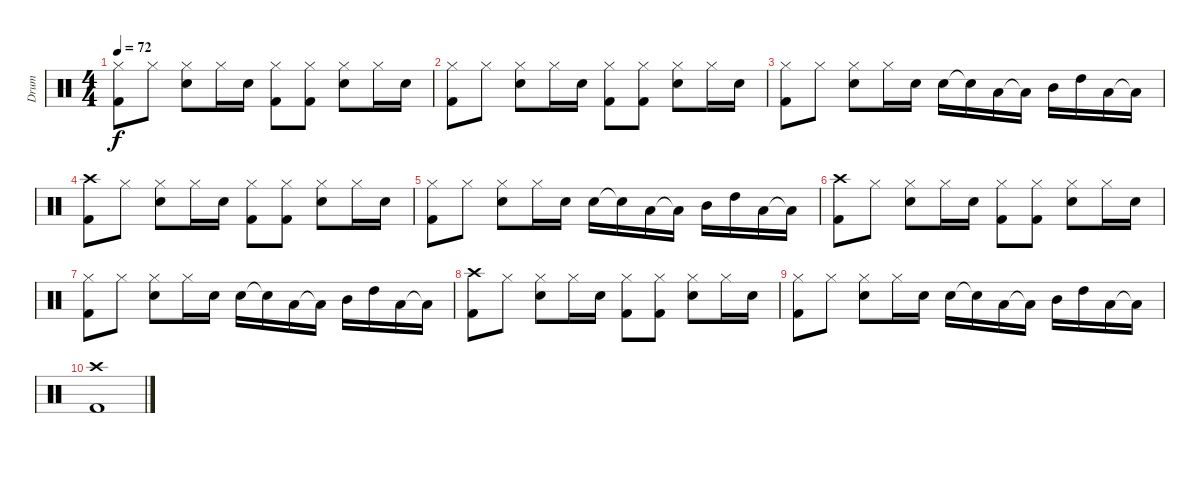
\track ("Drum" "Drum") {instrument percussion}
\staff {score}
\articulation defaults
\ts (4 4)
\tempo 72
\clef neutral
\ks c
("Hi-Hat (closed)" "Kick (hit) 2").8{dy f} "Hi-Hat (closed)".8 ("Hi-Hat (closed)" "Electric Snare (hit)").8 "Hi-Hat (closed)".16 "Electric Snare (hit)".16 ("Hi-Hat (closed)" "Kick (hit) 2").8 ("Hi-Hat (closed)" "Kick (hit) 2").8 ("Electric Snare (hit)" "Hi-Hat (closed)").8 "Hi-Hat (closed)".16 "Electric Snare (hit)".16 |
("Hi-Hat (closed)" "Kick (hit) 2").8 "Hi-Hat (closed)".8 ("Hi-Hat (closed)" "Electric Snare (hit)").8 "Hi-Hat (closed)".16 "Electric Snare (hit)".16 ("Hi-Hat (closed)" "Kick (hit) 2").8 ("Hi-Hat (closed)" "Kick (hit) 2").8 ("Electric Snare (hit)" "Hi-Hat (closed)").8 "Hi-Hat (closed)".16 "Electric Snare (hit)".16 |
("Hi-Hat (closed)" "Kick (hit) 2").8 "Hi-Hat (closed)".8 ("Hi-Hat (closed)" "Electric Snare (hit)").8 "Hi-Hat (closed)".16 "Electric Snare (hit)".16 "Electric Snare (hit)".16 "Electric Snare (hit)"{t}.16 "Low Tom (hit)".16 "Low Tom (hit)"{t}.16 "Mid Tom (hit)".16 "High Tom (hit)".16 "Low Tom (hit)".16 "Low Tom (hit)"{t}.16 |
("Crash high (hit)" "Kick (hit) 2").8 "Hi-Hat (closed)".8 ("Hi-Hat (closed)" "Electric Snare (hit)").8 "Hi-Hat (closed)".16 "Electric Snare (hit)".16 ("Hi-Hat (closed)" "Kick (hit) 2").8 ("Hi-Hat (closed)" "Kick (hit) 2").8 ("Electric Snare (hit)" "Hi-Hat (closed)").8 "Hi-Hat (closed)".16 "Electric Snare (hit)".16 |
("Hi-Hat (closed)" "Kick (hit) 2").8 "Hi-Hat (closed)".8 ("Hi-Hat (closed)" "Electric Snare (hit)").8 "Hi-Hat (closed)".16 "Electric Snare (hit)".16 "Electric Snare (hit)".16 "Electric Snare (hit)"{t}.16 "Low Tom (hit)".16 "Low Tom (hit)"{t}.16 "Mid Tom (hit)".16 "High Tom (hit)".16 "Low Tom (hit)".16 "Low Tom (hit)"{t}.16 |
("Crash high (hit)" "Kick (hit) 2").8 "Hi-Hat (closed)".8 ("Hi-Hat (closed)" "Electric Snare (hit)").8 "Hi-Hat (closed)".16 "Electric Snare (hit)".16 ("Hi-Hat (closed)" "Kick (hit) 2").8 ("Hi-Hat (closed)" "Kick (hit) 2").8 ("Electric Snare (hit)" "Hi-Hat (closed)").8 "Hi-Hat (closed)".16 "Electric Snare (hit)".16 |
("Hi-Hat (closed)" "Kick (hit) 2").8 "Hi-Hat (closed)".8 ("Hi-Hat (closed)" "Electric Snare (hit)").8 "Hi-Hat (closed)".16 "Electric Snare (hit)".16 "Electric Snare (hit)".16 "Electric Snare (hit)"{t}.16 "Low Tom (hit)".16 "Low Tom (hit)"{t}.16 "Mid Tom (hit)".16 "High Tom (hit)".16 "Low Tom (hit)".16 "Low Tom (hit)"{t}.16 |
("Crash high (hit)" "Kick (hit) 2").8 "Hi-Hat (closed)".8 ("Hi-Hat (closed)" "Electric Snare (hit)").8 "Hi-Hat (closed)".16 "Electric Snare (hit)".16 ("Hi-Hat (closed)" "Kick (hit) 2").8 ("Hi-Hat (closed)" "Kick (hit) 2").8 ("Electric Snare (hit)" "Hi-Hat (closed)").8 "Hi-Hat (closed)".16 "Electric Snare (hit)".16 |
("Hi-Hat (closed)" "Kick (hit) 2").8 "Hi-Hat (closed)".8 ("Hi-Hat (closed)" "Electric Snare (hit)").8 "Hi-Hat (closed)".16 "Electric Snare (hit)".16 "Electric Snare (hit)".16 "Electric Snare (hit)"{t}.16 "Low Tom (hit)".16 "Low Tom (hit)"{t}.16 "Mid Tom (hit)".16 "High Tom (hit)".16 "Low Tom (hit)".16 "Low Tom (hit)"{t}.16 |
("Crash high (hit)" "Kick (hit) 2").1
